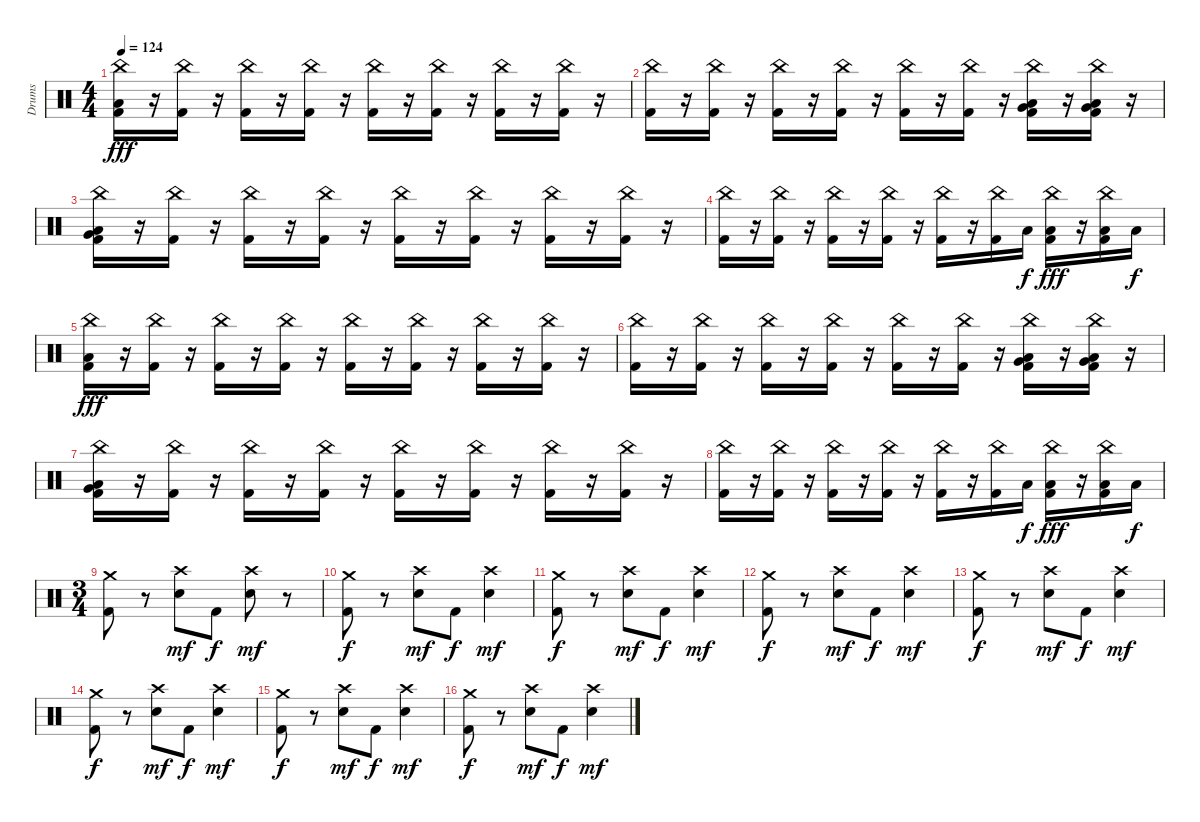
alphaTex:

\track ("Drums" "Drums") {instrument percussion}
\staff {score}
\articulation defaults
\ts (4 4)
\tempo 124
\clef neutral
\ks c
("China (hit)" "Low Tom (hit)" "Kick (hit) 2").16{dy fff volume 12} r.16 ("China (hit)" "Kick (hit) 2").16 r.16 ("China (hit)" "Kick (hit) 2").16 r.16 ("China (hit)" "Kick (hit) 2").16 r.16 ("China (hit)" "Kick (hit) 2").16 r.16 ("China (hit)" "Kick (hit) 2").16 r.16 ("China (hit)" "Kick (hit) 2").16 r.16 ("China (hit)" "Kick (hit) 2").16 r.16 |
("China (hit)" "Kick (hit) 2").16 r.16 ("China (hit)" "Kick (hit) 2").16 r.16 ("China (hit)" "Kick (hit) 2").16 r.16 ("China (hit)" "Kick (hit) 2").16 r.16 ("China (hit)" "Kick (hit) 2").16 r.16 ("China (hit)" "Kick (hit) 2").16 r.16 ("China (hit)" "Very Low Tom (hit)" "Low Tom (hit)" "Kick (hit) 2").16 r.16 ("China (hit)" "Very Low Tom (hit)" "Low Tom (hit)" "Kick (hit) 2").16 r.16 |
("China (hit)" "Very Low Tom (hit)" "Low Tom (hit)" "Kick (hit) 2").16{volume 13} r.16 ("China (hit)" "Kick (hit) 2").16 r.16 ("China (hit)" "Kick (hit) 2").16 r.16 ("China (hit)" "Kick (hit) 2").16 r.16 ("China (hit)" "Kick (hit) 2").16 r.16 ("China (hit)" "Kick (hit) 2").16 r.16 ("China (hit)" "Kick (hit) 2").16 r.16 ("China (hit)" "Kick (hit) 2").16 r.16 |
("China (hit)" "Kick (hit) 2").16 r.16 ("China (hit)" "Kick (hit) 2").16 r.16 ("China (hit)" "Kick (hit) 2").16 r.16 ("China (hit)" "Kick (hit) 2").16 r.16 ("China (hit)" "Kick (hit) 2").16 r.16 ("China (hit)" "Kick (hit) 2").16 "Low Tom (hit)".16{dy f} ("China (hit)" "Low Tom (hit)" "Kick (hit) 2").16{dy fff} r.16 ("China (hit)" "Low Tom (hit)" "Kick (hit) 2").16 "Low Tom (hit)".16{dy f} |
("China (hit)" "Low Tom (hit)" "Kick (hit) 2").16{dy fff volume 14} r.16 ("China (hit)" "Kick (hit) 2").16 r.16 ("China (hit)" "Kick (hit) 2").16 r.16 ("China (hit)" "Kick (hit) 2").16 r.16 ("China (hit)" "Kick (hit) 2").16 r.16 ("China (hit)" "Kick (hit) 2").16 r.16 ("China (hit)" "Kick (hit) 2").16 r.16 ("China (hit)" "Kick (hit) 2").16 r.16 |
("China (hit)" "Kick (hit) 2").16 r.16 ("China (hit)" "Kick (hit) 2").16 r.16 ("China (hit)" "Kick (hit) 2").16 r.16 ("China (hit)" "Kick (hit) 2").16 r.16 ("China (hit)" "Kick (hit) 2").16 r.16 ("China (hit)" "Kick (hit) 2").16 r.16 ("China (hit)" "Very Low Tom (hit)" "Low Tom (hit)" "Kick (hit) 2").16 r.16 ("China (hit)" "Very Low Tom (hit)" "Low Tom (hit)" "Kick (hit) 2").16 r.16 |
("China (hit)" "Very Low Tom (hit)" "Low Tom (hit)" "Kick (hit) 2").16{volume 15} r.16 ("China (hit)" "Kick (hit) 2").16 r.16 ("China (hit)" "Kick (hit) 2").16 r.16 ("China (hit)" "Kick (hit) 2").16 r.16 ("China (hit)" "Kick (hit) 2").16 r.16 ("China (hit)" "Kick (hit) 2").16 r.16 ("China (hit)" "Kick (hit) 2").16 r.16 ("China (hit)" "Kick (hit) 2").16 r.16 |
("China (hit)" "Kick (hit) 2").16 r.16 ("China (hit)" "Kick (hit) 2").16 r.16 ("China (hit)" "Kick (hit) 2").16 r.16 ("China (hit)" "Kick (hit) 2").16 r.16 ("China (hit)" "Kick (hit) 2").16 r.16 ("China (hit)" "Kick (hit) 2").16 "Low Tom (hit)".16{dy f} ("China (hit)" "Low Tom (hit)" "Kick (hit) 2").16{dy fff} r.16 ("China (hit)" "Low Tom (hit)" "Kick (hit) 2").16 "Low Tom (hit)".16{dy f} |
\ts (3 4)
("Crash medium (hit)" "Kick (hit) 2").8{volume 14} r.8 ("Crash high (hit)" "Snare (hit) 2").8{dy mf} "Kick (hit) 2".8{dy f} ("Crash high (hit)" "Snare (hit) 2").8{dy mf} r.8 |
("Crash medium (hit)" "Kick (hit) 2").8{dy f} r.8 ("Crash high (hit)" "Snare (hit) 2").8{dy mf} "Kick (hit) 2".8{dy f} ("Crash high (hit)" "Snare (hit) 2").4{dy mf} |
("Crash medium (hit)" "Kick (hit) 2").8{dy f} r.8 ("Crash high (hit)" "Snare (hit) 2").8{dy mf} "Kick (hit) 2".8{dy f} ("Crash high (hit)" "Snare (hit) 2").4{dy mf} |
("Crash medium (hit)" "Kick (hit) 2").8{dy f} r.8 ("Crash high (hit)" "Snare (hit) 2").8{dy mf} "Kick (hit) 2".8{dy f} ("Crash high (hit)" "Snare (hit) 2").4{dy mf} |
("Crash medium (hit)" "Kick (hit) 2").8{dy f} r.8 ("Crash high (hit)" "Snare (hit) 2").8{dy mf} "Kick (hit) 2".8{dy f} ("Crash high (hit)" "Snare (hit) 2").4{dy mf} |
("Crash medium (hit)" "Kick (hit) 2").8{dy f} r.8 ("Crash high (hit)" "Snare (hit) 2").8{dy mf} "Kick (hit) 2".8{dy f} ("Crash high (hit)" "Snare (hit) 2").4{dy mf} |
("Crash medium (hit)" "Kick (hit) 2").8{dy f} r.8 ("Crash high (hit)" "Snare (hit) 2").8{dy mf} "Kick (hit) 2".8{dy f} ("Crash high (hit)" "Snare (hit) 2").4{dy mf} |
("Crash medium (hit)" "Kick (hit) 2").8{dy f} r.8 ("Crash high (hit)" "Snare (hit) 2").8{dy mf} "Kick (hit) 2".8{dy f} ("Crash high (hit)" "Snare (hit) 2").4{dy mf}
